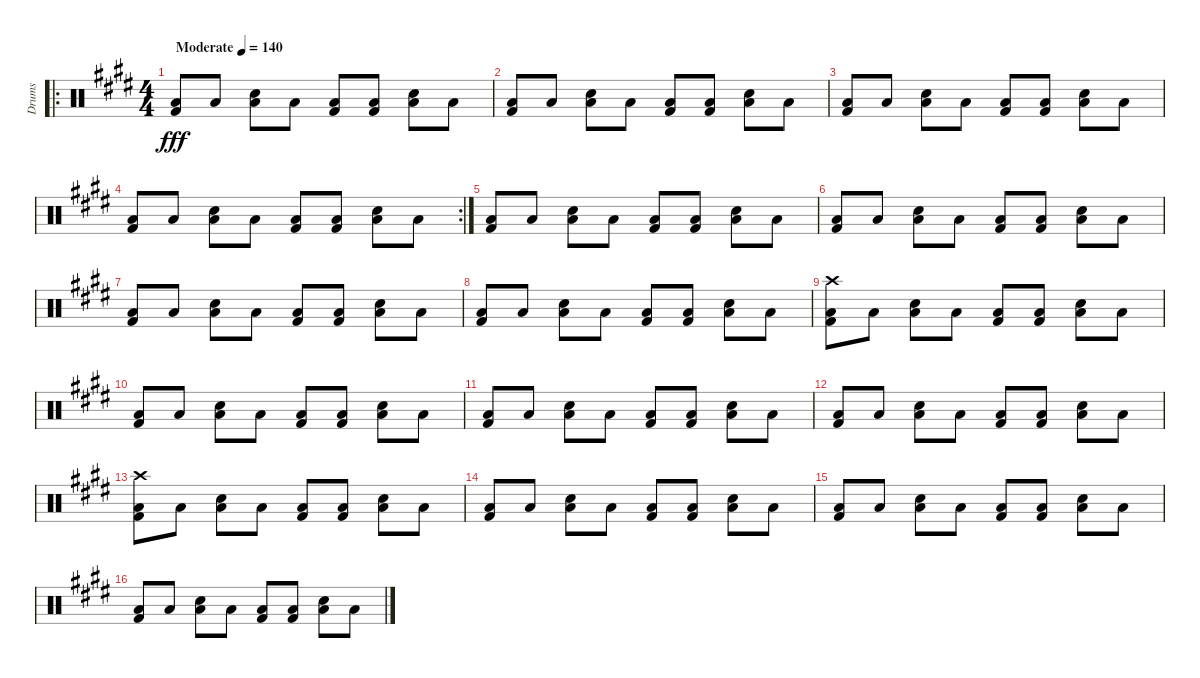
\track ("Drums" "Drums") {instrument percussion}
\staff {score}
\articulation defaults
\ro
\ts (4 4)
\tempo (140 "Moderate")
\clef neutral
\ks e
("Kick (hit) 2" "Low Floor Tom (hit)").8{dy fff} "Low Floor Tom (hit)".8 ("Snare (hit) 2" "Low Floor Tom (hit)").8 "Low Floor Tom (hit)".8 ("Kick (hit) 2" "Low Floor Tom (hit)").8 ("Kick (hit) 2" "Low Floor Tom (hit)").8 ("Snare (hit) 2" "Low Floor Tom (hit)").8 "Low Floor Tom (hit)".8 |
("Kick (hit) 2" "Low Floor Tom (hit)").8 "Low Floor Tom (hit)".8 ("Snare (hit) 2" "Low Floor Tom (hit)").8 "Low Floor Tom (hit)".8 ("Kick (hit) 2" "Low Floor Tom (hit)").8 ("Kick (hit) 2" "Low Floor Tom (hit)").8 ("Snare (hit) 2" "Low Floor Tom (hit)").8 "Low Floor Tom (hit)".8 |
("Kick (hit) 2" "Low Floor Tom (hit)").8 "Low Floor Tom (hit)".8 ("Snare (hit) 2" "Low Floor Tom (hit)").8 "Low Floor Tom (hit)".8 ("Kick (hit) 2" "Low Floor Tom (hit)").8 ("Kick (hit) 2" "Low Floor Tom (hit)").8 ("Snare (hit) 2" "Low Floor Tom (hit)").8 "Low Floor Tom (hit)".8 |
\rc 2
("Kick (hit) 2" "Low Floor Tom (hit)").8 "Low Floor Tom (hit)".8 ("Snare (hit) 2" "Low Floor Tom (hit)").8 "Low Floor Tom (hit)".8 ("Kick (hit) 2" "Low Floor Tom (hit)").8 ("Kick (hit) 2" "Low Floor Tom (hit)").8 ("Snare (hit) 2" "Low Floor Tom (hit)").8 "Low Floor Tom (hit)".8 |
("Kick (hit) 2" "Low Floor Tom (hit)").8 "Low Floor Tom (hit)".8 ("Snare (hit) 2" "Low Floor Tom (hit)").8 "Low Floor Tom (hit)".8 ("Kick (hit) 2" "Low Floor Tom (hit)").8 ("Kick (hit) 2" "Low Floor Tom (hit)").8 ("Snare (hit) 2" "Low Floor Tom (hit)").8 "Low Floor Tom (hit)".8 |
("Kick (hit) 2" "Low Floor Tom (hit)").8 "Low Floor Tom (hit)".8 ("Snare (hit) 2" "Low Floor Tom (hit)").8 "Low Floor Tom (hit)".8 ("Kick (hit) 2" "Low Floor Tom (hit)").8 ("Kick (hit) 2" "Low Floor Tom (hit)").8 ("Snare (hit) 2" "Low Floor Tom (hit)").8 "Low Floor Tom (hit)".8 |
("Kick (hit) 2" "Low Floor Tom (hit)").8 "Low Floor Tom (hit)".8 ("Snare (hit) 2" "Low Floor Tom (hit)").8 "Low Floor Tom (hit)".8 ("Kick (hit) 2" "Low Floor Tom (hit)").8 ("Kick (hit) 2" "Low Floor Tom (hit)").8 ("Snare (hit) 2" "Low Floor Tom (hit)").8 "Low Floor Tom (hit)".8 |
("Kick (hit) 2" "Low Floor Tom (hit)").8 "Low Floor Tom (hit)".8 ("Snare (hit) 2" "Low Floor Tom (hit)").8 "Low Floor Tom (hit)".8 ("Kick (hit) 2" "Low Floor Tom (hit)").8 ("Kick (hit) 2" "Low Floor Tom (hit)").8 ("Snare (hit) 2" "Low Floor Tom (hit)").8 "Low Floor Tom (hit)".8 |
("Crash high (hit)" "Kick (hit) 2" "Low Floor Tom (hit)").8 "Low Floor Tom (hit)".8 ("Snare (hit) 2" "Low Floor Tom (hit)").8 "Low Floor Tom (hit)".8 ("Kick (hit) 2" "Low Floor Tom (hit)").8 ("Kick (hit) 2" "Low Floor Tom (hit)").8 ("Snare (hit) 2" "Low Floor Tom (hit)").8 "Low Floor Tom (hit)".8 |
("Kick (hit) 2" "Low Floor Tom (hit)").8 "Low Floor Tom (hit)".8 ("Snare (hit) 2" "Low Floor Tom (hit)").8 "Low Floor Tom (hit)".8 ("Kick (hit) 2" "Low Floor Tom (hit)").8 ("Kick (hit) 2" "Low Floor Tom (hit)").8 ("Snare (hit) 2" "Low Floor Tom (hit)").8 "Low Floor Tom (hit)".8 |
("Kick (hit) 2" "Low Floor Tom (hit)").8 "Low Floor Tom (hit)".8 ("Snare (hit) 2" "Low Floor Tom (hit)").8 "Low Floor Tom (hit)".8 ("Kick (hit) 2" "Low Floor Tom (hit)").8 ("Kick (hit) 2" "Low Floor Tom (hit)").8 ("Snare (hit) 2" "Low Floor Tom (hit)").8 "Low Floor Tom (hit)".8 |
("Kick (hit) 2" "Low Floor Tom (hit)").8 "Low Floor Tom (hit)".8 ("Snare (hit) 2" "Low Floor Tom (hit)").8 "Low Floor Tom (hit)".8 ("Kick (hit) 2" "Low Floor Tom (hit)").8 ("Kick (hit) 2" "Low Floor Tom (hit)").8 ("Snare (hit) 2" "Low Floor Tom (hit)").8 "Low Floor Tom (hit)".8 |
("Crash high (hit)" "Kick (hit) 2" "Low Floor Tom (hit)").8 "Low Floor Tom (hit)".8 ("Snare (hit) 2" "Low Floor Tom (hit)").8 "Low Floor Tom (hit)".8 ("Kick (hit) 2" "Low Floor Tom (hit)").8 ("Kick (hit) 2" "Low Floor Tom (hit)").8 ("Snare (hit) 2" "Low Floor Tom (hit)").8 "Low Floor Tom (hit)".8 |
("Kick (hit) 2" "Low Floor Tom (hit)").8 "Low Floor Tom (hit)".8 ("Snare (hit) 2" "Low Floor Tom (hit)").8 "Low Floor Tom (hit)".8 ("Kick (hit) 2" "Low Floor Tom (hit)").8 ("Kick (hit) 2" "Low Floor Tom (hit)").8 ("Snare (hit) 2" "Low Floor Tom (hit)").8 "Low Floor Tom (hit)".8 |
("Kick (hit) 2" "Low Floor Tom (hit)").8 "Low Floor Tom (hit)".8 ("Snare (hit) 2" "Low Floor Tom (hit)").8 "Low Floor Tom (hit)".8 ("Kick (hit) 2" "Low Floor Tom (hit)").8 ("Kick (hit) 2" "Low Floor Tom (hit)").8 ("Snare (hit) 2" "Low Floor Tom (hit)").8 "Low Floor Tom (hit)".8 |
("Kick (hit) 2" "Low Floor Tom (hit)").8 "Low Floor Tom (hit)".8 ("Snare (hit) 2" "Low Floor Tom (hit)").8 "Low Floor Tom (hit)".8 ("Kick (hit) 2" "Low Floor Tom (hit)").8 ("Kick (hit) 2" "Low Floor Tom (hit)").8 ("Snare (hit) 2" "Low Floor Tom (hit)").8 "Low Floor Tom (hit)".8
